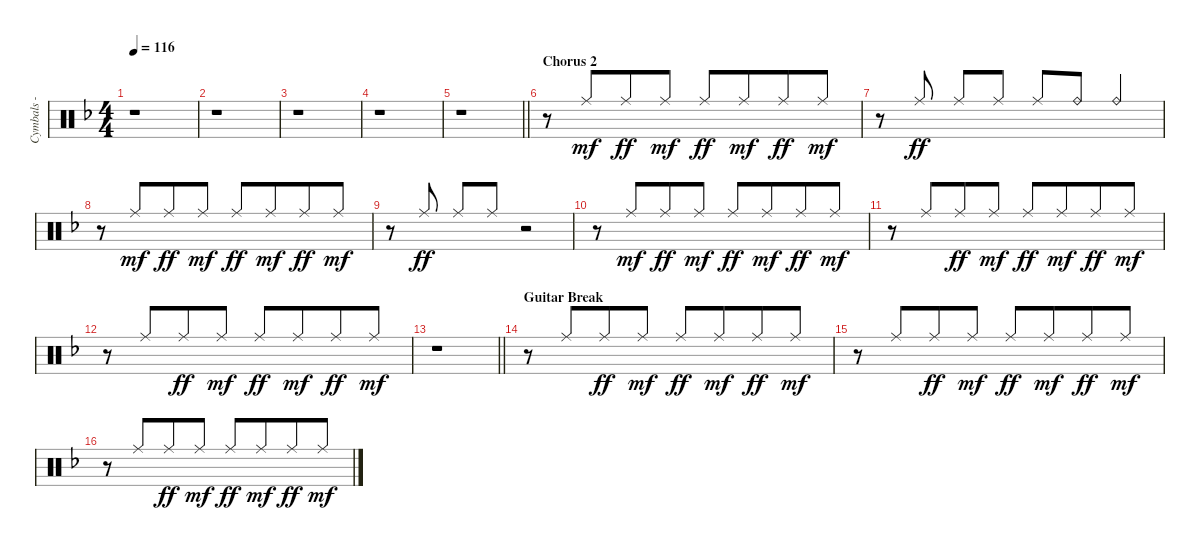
\track ("Cymbals - ride" "Cymbals - ") {instrument percussion}
\staff {score}
\articulation defaults
\ts (4 4)
\tempo 116
\clef neutral
\ks f
r.1{dy ff} |
r.1 |
r.1 |
r.1 |
\barLineRight lightlight
r.1 |
\section ("" "Chorus 2")
r.8 "Ride (middle)".8{dy mf beam Up beam merge} "Ride (middle)".8{dy ff beam Up} "Ride (middle)".8{dy mf beam Up} "Ride (middle)".8{dy ff beam Up} "Ride (middle)".8{dy mf beam Up beam merge} "Ride (middle)".8{dy ff beam Up} "Ride (middle)".8{dy mf beam Up} |
r.8 "Ride (middle)".8{dy ff beam Up beam split} "Ride (middle)".8{beam Up} "Ride (middle)".8{beam Up} "Ride (middle)".8{beam Up} "Ride (bell)".8{beam Up beam merge} "Ride (bell)".4{beam Up} |
r.8 "Ride (middle)".8{dy mf beam Up beam merge} "Ride (middle)".8{dy ff beam Up} "Ride (middle)".8{dy mf beam Up} "Ride (middle)".8{dy ff beam Up} "Ride (middle)".8{dy mf beam Up beam merge} "Ride (middle)".8{dy ff beam Up} "Ride (middle)".8{dy mf beam Up} |
r.8 "Ride (middle)".8{dy ff beam Up beam split} "Ride (middle)".8{beam Up} "Ride (middle)".8{beam Up} r.2 |
r.8 "Ride (middle)".8{dy mf beam Up beam merge} "Ride (middle)".8{dy ff beam Up} "Ride (middle)".8{dy mf beam Up} "Ride (middle)".8{dy ff beam Up} "Ride (middle)".8{dy mf beam Up beam merge} "Ride (middle)".8{dy ff beam Up} "Ride (middle)".8{dy mf beam Up} |
r.8 "Ride (middle)".8{beam Up beam merge} "Ride (middle)".8{dy ff beam Up} "Ride (middle)".8{dy mf beam Up} "Ride (middle)".8{dy ff beam Up} "Ride (middle)".8{dy mf beam Up beam merge} "Ride (middle)".8{dy ff beam Up} "Ride (middle)".8{dy mf beam Up} |
r.8 "Ride (middle)".8{beam Up beam merge} "Ride (middle)".8{dy ff beam Up} "Ride (middle)".8{dy mf beam Up} "Ride (middle)".8{dy ff beam Up} "Ride (middle)".8{dy mf beam Up beam merge} "Ride (middle)".8{dy ff beam Up} "Ride (middle)".8{dy mf beam Up} |
\barLineRight lightlight
r.1 |
\section ("" "Guitar Break")
r.8 "Ride (middle)".8{beam Up beam merge} "Ride (middle)".8{dy ff beam Up} "Ride (middle)".8{dy mf beam Up} "Ride (middle)".8{dy ff beam Up} "Ride (middle)".8{dy mf beam Up beam merge} "Ride (middle)".8{dy ff beam Up} "Ride (middle)".8{dy mf beam Up} |
r.8 "Ride (middle)".8{beam Up beam merge} "Ride (middle)".8{dy ff beam Up} "Ride (middle)".8{dy mf beam Up} "Ride (middle)".8{dy ff beam Up} "Ride (middle)".8{dy mf beam Up beam merge} "Ride (middle)".8{dy ff beam Up} "Ride (middle)".8{dy mf beam Up} |
r.8 "Ride (middle)".8{beam Up beam merge} "Ride (middle)".8{dy ff beam Up} "Ride (middle)".8{dy mf beam Up} "Ride (middle)".8{dy ff beam Up} "Ride (middle)".8{dy mf beam Up beam merge} "Ride (middle)".8{dy ff beam Up} "Ride (middle)".8{dy mf beam Up}
